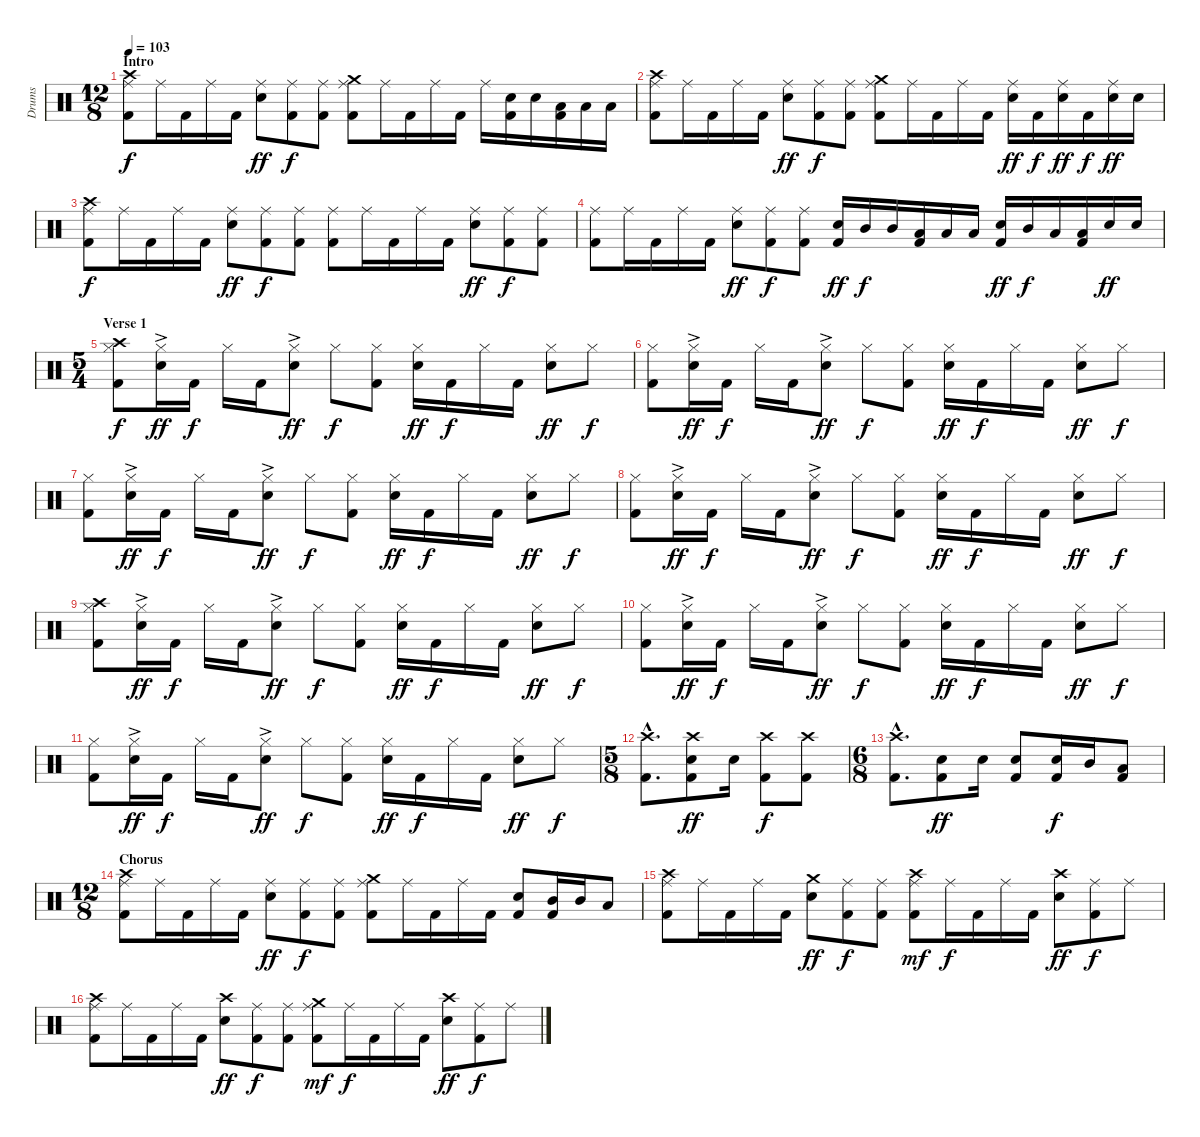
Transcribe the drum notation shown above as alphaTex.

\track ("Drums" "Drums") {instrument percussion}
\staff {score}
\articulation defaults
\ts (12 8)
\section ("" "Intro")
\tempo 103
\clef neutral
\ks c
("Crash high (hit)" "Ride (middle)" "Kick (hit) 2").8{dy f} "Ride (middle)".16 "Kick (hit) 2".16 "Ride (middle)".16 "Kick (hit) 2".16 ("Ride (middle)" "Electric Snare (hit)").8{dy ff} ("Ride (middle)" "Kick (hit) 2").8{dy f} ("Ride (middle)" "Kick (hit) 2").8 ("Crash medium (hit)" "Ride (middle)" "Kick (hit) 2").8 "Ride (middle)".16 "Kick (hit) 2".16 "Ride (middle)".16 "Kick (hit) 2".16 "Ride (middle)".16 ("Electric Snare (hit)" "Kick (hit) 2").16 "Electric Snare (hit)".16 ("Low Tom (hit)" "Kick (hit) 2").16 "Low Tom (hit)".16 "Low Tom (hit)".16 |
("Crash high (hit)" "Ride (middle)" "Kick (hit) 2").8 "Ride (middle)".16 "Kick (hit) 2".16 "Ride (middle)".16 "Kick (hit) 2".16 ("Ride (middle)" "Electric Snare (hit)").8{dy ff} ("Ride (middle)" "Kick (hit) 2").8{dy f} ("Ride (middle)" "Kick (hit) 2").8 ("Crash medium (hit)" "Ride (middle)" "Kick (hit) 2").8 "Ride (middle)".16 "Kick (hit) 2".16 "Ride (middle)".16 "Kick (hit) 2".16 ("Ride (middle)" "Electric Snare (hit)").16{dy ff} "Kick (hit) 2".16{dy f} ("Ride (middle)" "Electric Snare (hit)").16{dy ff} "Kick (hit) 2".16{dy f} ("Ride (middle)" "Electric Snare (hit)").16{dy ff} "Electric Snare (hit)".16 |
("Crash high (hit)" "Ride (middle)" "Kick (hit) 2").8{dy f} "Ride (middle)".16 "Kick (hit) 2".16 "Ride (middle)".16 "Kick (hit) 2".16 ("Ride (middle)" "Electric Snare (hit)").8{dy ff} ("Ride (middle)" "Kick (hit) 2").8{dy f} ("Ride (middle)" "Kick (hit) 2").8 ("Ride (middle)" "Kick (hit) 2").8 "Ride (middle)".16 "Kick (hit) 2".16 "Ride (middle)".16 "Kick (hit) 2".16 ("Ride (middle)" "Electric Snare (hit)").8{dy ff} ("Ride (middle)" "Kick (hit) 2").8{dy f} ("Ride (middle)" "Kick (hit) 2").8 |
("Ride (middle)" "Kick (hit) 2").8 "Ride (middle)".16 "Kick (hit) 2".16 "Ride (middle)".16 "Kick (hit) 2".16 ("Ride (middle)" "Electric Snare (hit)").8{dy ff} ("Ride (middle)" "Kick (hit) 2").8{dy f} ("Ride (middle)" "Kick (hit) 2").8 ("Electric Snare (hit)" "Kick (hit) 2").16{dy ff} "Mid Tom (hit)".16{dy f} "Mid Tom (hit)".16 ("Low Tom (hit)" "Kick (hit) 2").16 "Low Tom (hit)".16 "Low Tom (hit)".16 ("Electric Snare (hit)" "Kick (hit) 2").16{dy ff} "Mid Tom (hit)".16{dy f} "Low Tom (hit)".16 ("Low Tom (hit)" "Kick (hit) 2").16 "Electric Snare (hit)".16{dy ff} "Electric Snare (hit)".16 |
\ts (5 4)
\section ("" "Verse 1")
("Crash high (hit)" "Hi-Hat (closed)" "Kick (hit) 2").8{dy f} ("Hi-Hat (closed)" "Electric Snare (hit)"{ac}).16{dy ff} "Kick (hit) 2".16{dy f} "Hi-Hat (closed)".16 "Kick (hit) 2".16 ("Hi-Hat (closed)" "Electric Snare (hit)"{ac}).8{dy ff} "Hi-Hat (closed)".8{dy f} ("Hi-Hat (closed)" "Kick (hit) 2").8 ("Hi-Hat (closed)" "Electric Snare (hit)").16{dy ff} "Kick (hit) 2".16{dy f} "Hi-Hat (closed)".16 "Kick (hit) 2".16 ("Hi-Hat (closed)" "Electric Snare (hit)").8{dy ff} "Hi-Hat (closed)".8{dy f} |
("Hi-Hat (closed)" "Kick (hit) 2").8 ("Hi-Hat (closed)" "Electric Snare (hit)"{ac}).16{dy ff} "Kick (hit) 2".16{dy f} "Hi-Hat (closed)".16 "Kick (hit) 2".16 ("Hi-Hat (closed)" "Electric Snare (hit)"{ac}).8{dy ff} "Hi-Hat (closed)".8{dy f} ("Hi-Hat (closed)" "Kick (hit) 2").8 ("Hi-Hat (closed)" "Electric Snare (hit)").16{dy ff} "Kick (hit) 2".16{dy f} "Hi-Hat (closed)".16 "Kick (hit) 2".16 ("Hi-Hat (closed)" "Electric Snare (hit)").8{dy ff} "Hi-Hat (closed)".8{dy f} |
("Hi-Hat (closed)" "Kick (hit) 2").8 ("Hi-Hat (closed)" "Electric Snare (hit)"{ac}).16{dy ff} "Kick (hit) 2".16{dy f} "Hi-Hat (closed)".16 "Kick (hit) 2".16 ("Hi-Hat (closed)" "Electric Snare (hit)"{ac}).8{dy ff} "Hi-Hat (closed)".8{dy f} ("Hi-Hat (closed)" "Kick (hit) 2").8 ("Hi-Hat (closed)" "Electric Snare (hit)").16{dy ff} "Kick (hit) 2".16{dy f} "Hi-Hat (closed)".16 "Kick (hit) 2".16 ("Hi-Hat (closed)" "Electric Snare (hit)").8{dy ff} "Hi-Hat (closed)".8{dy f} |
("Hi-Hat (closed)" "Kick (hit) 2").8 ("Hi-Hat (closed)" "Electric Snare (hit)"{ac}).16{dy ff} "Kick (hit) 2".16{dy f} "Hi-Hat (closed)".16 "Kick (hit) 2".16 ("Hi-Hat (closed)" "Electric Snare (hit)"{ac}).8{dy ff} "Hi-Hat (closed)".8{dy f} ("Hi-Hat (closed)" "Kick (hit) 2").8 ("Hi-Hat (closed)" "Electric Snare (hit)").16{dy ff} "Kick (hit) 2".16{dy f} "Hi-Hat (closed)".16 "Kick (hit) 2".16 ("Hi-Hat (closed)" "Electric Snare (hit)").8{dy ff} "Hi-Hat (closed)".8{dy f} |
("Crash high (hit)" "Hi-Hat (closed)" "Kick (hit) 2").8 ("Hi-Hat (closed)" "Electric Snare (hit)"{ac}).16{dy ff} "Kick (hit) 2".16{dy f} "Hi-Hat (closed)".16 "Kick (hit) 2".16 ("Hi-Hat (closed)" "Electric Snare (hit)"{ac}).8{dy ff} "Hi-Hat (closed)".8{dy f} ("Hi-Hat (closed)" "Kick (hit) 2").8 ("Hi-Hat (closed)" "Electric Snare (hit)").16{dy ff} "Kick (hit) 2".16{dy f} "Hi-Hat (closed)".16 "Kick (hit) 2".16 ("Hi-Hat (closed)" "Electric Snare (hit)").8{dy ff} "Hi-Hat (closed)".8{dy f} |
("Hi-Hat (closed)" "Kick (hit) 2").8 ("Hi-Hat (closed)" "Electric Snare (hit)"{ac}).16{dy ff} "Kick (hit) 2".16{dy f} "Hi-Hat (closed)".16 "Kick (hit) 2".16 ("Hi-Hat (closed)" "Electric Snare (hit)"{ac}).8{dy ff} "Hi-Hat (closed)".8{dy f} ("Hi-Hat (closed)" "Kick (hit) 2").8 ("Hi-Hat (closed)" "Electric Snare (hit)").16{dy ff} "Kick (hit) 2".16{dy f} "Hi-Hat (closed)".16 "Kick (hit) 2".16 ("Hi-Hat (closed)" "Electric Snare (hit)").8{dy ff} "Hi-Hat (closed)".8{dy f} |
("Hi-Hat (closed)" "Kick (hit) 2").8 ("Hi-Hat (closed)" "Electric Snare (hit)"{ac}).16{dy ff} "Kick (hit) 2".16{dy f} "Hi-Hat (closed)".16 "Kick (hit) 2".16 ("Hi-Hat (closed)" "Electric Snare (hit)"{ac}).8{dy ff} "Hi-Hat (closed)".8{dy f} ("Hi-Hat (closed)" "Kick (hit) 2").8 ("Hi-Hat (closed)" "Electric Snare (hit)").16{dy ff} "Kick (hit) 2".16{dy f} "Hi-Hat (closed)".16 "Kick (hit) 2".16 ("Hi-Hat (closed)" "Electric Snare (hit)").8{dy ff} "Hi-Hat (closed)".8{dy f} |
\ts (5 8)
("Crash high (hit)"{hac} "Kick (hit) 2"{hac}).8{d} ("Crash high (hit)" "Electric Snare (hit)" "Kick (hit) 2").8{dy ff} "Electric Snare (hit)".16 ("Crash high (hit)" "Kick (hit) 2").8{dy f} ("Crash high (hit)" "Kick (hit) 2").8 |
\ts (6 8)
("Crash high (hit)"{hac} "Kick (hit) 2"{hac}).8{d} ("Electric Snare (hit)" "Kick (hit) 2").8{dy ff} "Electric Snare (hit)".16 ("Electric Snare (hit)" "Kick (hit) 2").8 ("Electric Snare (hit)" "Kick (hit) 2").16{dy f} "Mid Tom (hit)".16 ("Low Tom (hit)" "Kick (hit) 2").8 |
\ts (12 8)
\section ("" "Chorus")
("Crash high (hit)" "Ride (middle)" "Kick (hit) 2").8 "Ride (middle)".16 "Kick (hit) 2".16 "Ride (middle)".16 "Kick (hit) 2".16 ("Ride (middle)" "Electric Snare (hit)").8{dy ff} ("Ride (middle)" "Kick (hit) 2").8{dy f} ("Ride (middle)" "Kick (hit) 2").8 ("Crash medium (hit)" "Ride (middle)" "Kick (hit) 2").8 "Ride (middle)".16 "Kick (hit) 2".16 "Ride (middle)".16 "Kick (hit) 2".16 ("Electric Snare (hit)" "Kick (hit) 2").8 ("Mid Tom (hit)" "Kick (hit) 2").16 "Mid Tom (hit)".16 "Low Tom (hit)".8 |
("Crash high (hit)" "Ride (middle)" "Kick (hit) 2").8 "Ride (middle)".16 "Kick (hit) 2".16 "Ride (middle)".16 "Kick (hit) 2".16 ("Crash medium (hit)" "Electric Snare (hit)").8{dy ff} ("Ride (middle)" "Kick (hit) 2").8{dy f} ("Ride (middle)" "Kick (hit) 2").8 ("Crash high (hit)" "Ride (middle)" "Kick (hit) 2").8{dy mf} "Ride (middle)".16{dy f} "Kick (hit) 2".16 "Ride (middle)".16 "Kick (hit) 2".16 ("Crash high (hit)" "Electric Snare (hit)").8{dy ff} ("Ride (middle)" "Kick (hit) 2").8{dy f} "Ride (middle)".8 |
("Crash high (hit)" "Ride (middle)" "Kick (hit) 2").8 "Ride (middle)".16 "Kick (hit) 2".16 "Ride (middle)".16 "Kick (hit) 2".16 ("Crash high (hit)" "Electric Snare (hit)").8{dy ff} ("Ride (middle)" "Kick (hit) 2").8{dy f} ("Ride (middle)" "Kick (hit) 2").8 ("Crash medium (hit)" "Ride (middle)" "Kick (hit) 2").8{dy mf} "Ride (middle)".16{dy f} "Kick (hit) 2".16 "Ride (middle)".16 "Kick (hit) 2".16 ("Crash high (hit)" "Electric Snare (hit)").8{dy ff} ("Ride (middle)" "Kick (hit) 2").8{dy f} "Ride (middle)".8
